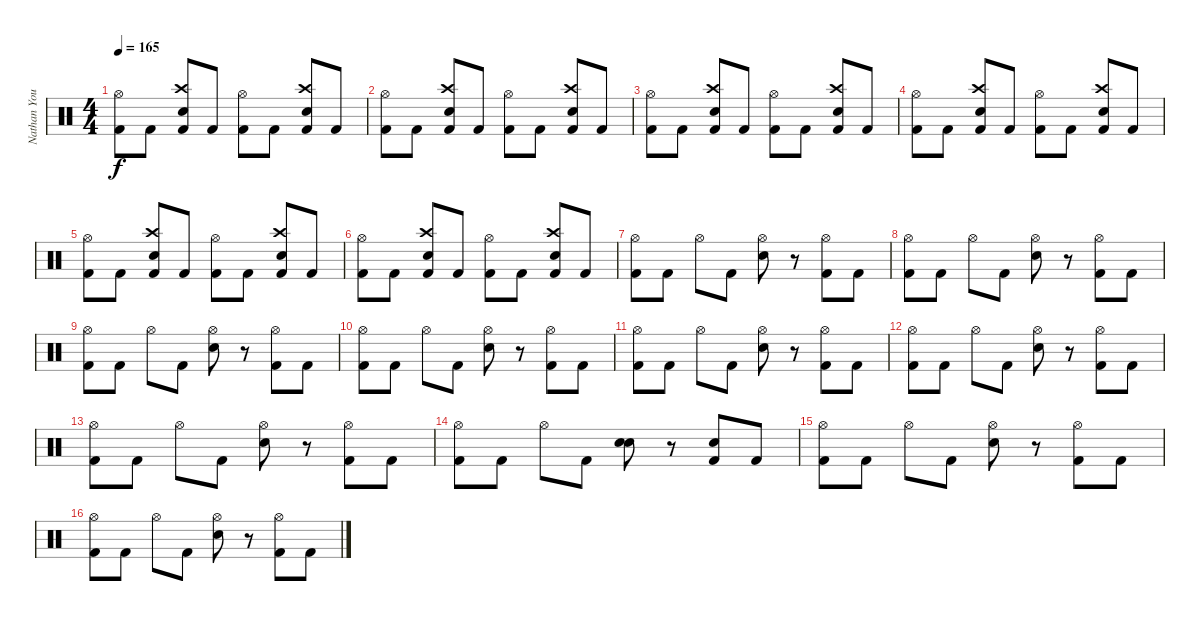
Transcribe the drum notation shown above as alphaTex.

\track ("Nathan Young" "Nathan You") {instrument percussion}
\staff {score}
\articulation defaults
\ts (4 4)
\tempo 165
\clef neutral
\ks c
("Hi-Hat (open)" "Kick (hit) 2").8{dy f} "Kick (hit) 2".8 ("Crash high (hit)" "Snare (hit) 2" "Kick (hit) 2").8 "Kick (hit) 2".8 ("Hi-Hat (open)" "Kick (hit) 2").8 "Kick (hit) 2".8 ("Crash high (hit)" "Snare (hit) 2" "Kick (hit) 2").8 "Kick (hit) 2".8 |
("Hi-Hat (open)" "Kick (hit) 2").8 "Kick (hit) 2".8 ("Crash high (hit)" "Snare (hit) 2" "Kick (hit) 2").8 "Kick (hit) 2".8 ("Hi-Hat (open)" "Kick (hit) 2").8 "Kick (hit) 2".8 ("Crash high (hit)" "Snare (hit) 2" "Kick (hit) 2").8 "Kick (hit) 2".8 |
("Hi-Hat (open)" "Kick (hit) 2").8 "Kick (hit) 2".8 ("Crash high (hit)" "Snare (hit) 2" "Kick (hit) 2").8 "Kick (hit) 2".8 ("Hi-Hat (open)" "Kick (hit) 2").8 "Kick (hit) 2".8 ("Crash high (hit)" "Snare (hit) 2" "Kick (hit) 2").8 "Kick (hit) 2".8 |
("Hi-Hat (open)" "Kick (hit) 2").8 "Kick (hit) 2".8 ("Crash high (hit)" "Snare (hit) 2" "Kick (hit) 2").8 "Kick (hit) 2".8 ("Hi-Hat (open)" "Kick (hit) 2").8 "Kick (hit) 2".8 ("Crash high (hit)" "Snare (hit) 2" "Kick (hit) 2").8 "Kick (hit) 2".8 |
("Hi-Hat (open)" "Kick (hit) 2").8 "Kick (hit) 2".8 ("Crash high (hit)" "Snare (hit) 2" "Kick (hit) 2").8 "Kick (hit) 2".8 ("Hi-Hat (open)" "Kick (hit) 2").8 "Kick (hit) 2".8 ("Crash high (hit)" "Snare (hit) 2" "Kick (hit) 2").8 "Kick (hit) 2".8 |
("Hi-Hat (open)" "Kick (hit) 2").8 "Kick (hit) 2".8 ("Crash high (hit)" "Snare (hit) 2" "Kick (hit) 2").8 "Kick (hit) 2".8 ("Hi-Hat (open)" "Kick (hit) 2").8 "Kick (hit) 2".8 ("Crash high (hit)" "Snare (hit) 2" "Kick (hit) 2").8 "Kick (hit) 2".8 |
("Hi-Hat (open)" "Kick (hit) 2").8 "Kick (hit) 2".8 "Hi-Hat (open)".8 "Kick (hit) 2".8 ("Hi-Hat (open)" "Snare (hit) 2").8 r.8 ("Hi-Hat (open)" "Kick (hit) 2").8 "Kick (hit) 2".8 |
("Hi-Hat (open)" "Kick (hit) 2").8 "Kick (hit) 2".8 "Hi-Hat (open)".8 "Kick (hit) 2".8 ("Hi-Hat (open)" "Snare (hit) 2").8 r.8 ("Hi-Hat (open)" "Kick (hit) 2").8 "Kick (hit) 2".8 |
("Hi-Hat (open)" "Kick (hit) 2").8 "Kick (hit) 2".8 "Hi-Hat (open)".8 "Kick (hit) 2".8 ("Hi-Hat (open)" "Snare (hit) 2").8 r.8 ("Hi-Hat (open)" "Kick (hit) 2").8 "Kick (hit) 2".8 |
("Hi-Hat (open)" "Kick (hit) 2").8 "Kick (hit) 2".8 "Hi-Hat (open)".8 "Kick (hit) 2".8 ("Hi-Hat (open)" "Snare (hit) 2").8 r.8 ("Hi-Hat (open)" "Kick (hit) 2").8 "Kick (hit) 2".8 |
("Hi-Hat (open)" "Kick (hit) 2").8 "Kick (hit) 2".8 "Hi-Hat (open)".8 "Kick (hit) 2".8 ("Hi-Hat (open)" "Snare (hit) 2").8 r.8 ("Hi-Hat (open)" "Kick (hit) 2").8 "Kick (hit) 2".8 |
("Hi-Hat (open)" "Kick (hit) 2").8 "Kick (hit) 2".8 "Hi-Hat (open)".8 "Kick (hit) 2".8 ("Hi-Hat (open)" "Snare (hit) 2").8 r.8 ("Hi-Hat (open)" "Kick (hit) 2").8 "Kick (hit) 2".8 |
("Hi-Hat (open)" "Kick (hit) 2").8 "Kick (hit) 2".8 "Hi-Hat (open)".8 "Kick (hit) 2".8 ("Hi-Hat (open)" "Snare (hit) 2").8 r.8 ("Hi-Hat (open)" "Kick (hit) 2").8 "Kick (hit) 2".8 |
("Hi-Hat (open)" "Kick (hit) 2").8 "Kick (hit) 2".8 "Hi-Hat (open)".8 "Kick (hit) 2".8 ("Snare (hit) 2" "Electric Snare (hit)").8 r.8 ("Snare (hit) 2" "Kick (hit) 2").8 "Kick (hit) 2".8 |
("Hi-Hat (open)" "Kick (hit) 2").8 "Kick (hit) 2".8 "Hi-Hat (open)".8 "Kick (hit) 2".8 ("Hi-Hat (open)" "Snare (hit) 2").8 r.8 ("Hi-Hat (open)" "Kick (hit) 2").8 "Kick (hit) 2".8 |
("Hi-Hat (open)" "Kick (hit) 2").8 "Kick (hit) 2".8 "Hi-Hat (open)".8 "Kick (hit) 2".8 ("Hi-Hat (open)" "Snare (hit) 2").8 r.8 ("Hi-Hat (open)" "Kick (hit) 2").8 "Kick (hit) 2".8
